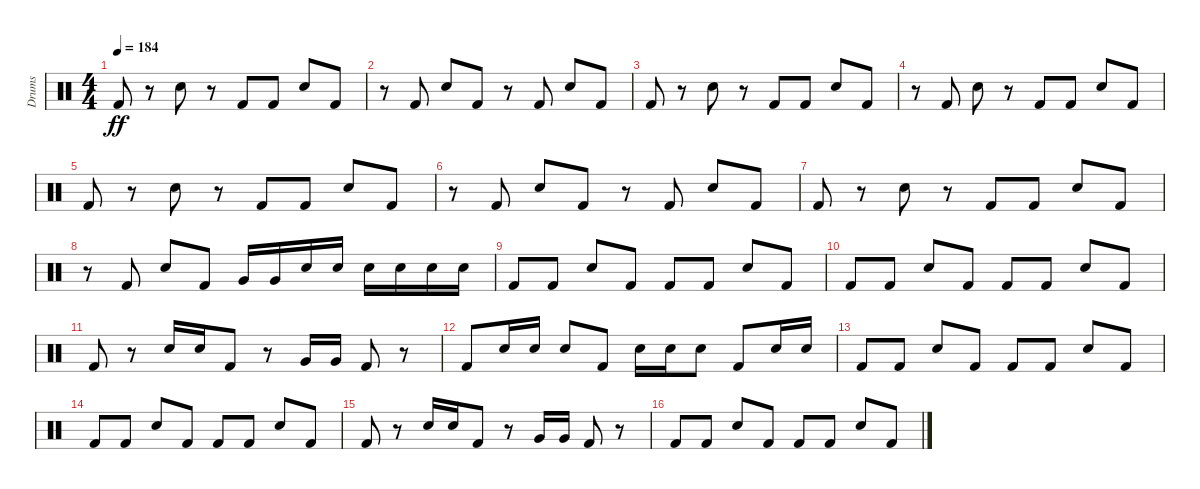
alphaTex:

\track ("Drums" "Drums") {instrument percussion}
\staff {score}
\articulation defaults
\ts (4 4)
\tempo 184
\clef neutral
\ks c "Kick (hit) 2".8{dy ff}
r.8 "Electric Snare (hit)".8 r.8 "Kick (hit) 2".8 "Kick (hit) 2".8 "Electric Snare (hit)".8 "Kick (hit) 2".8 |
r.8 "Kick (hit) 2".8 "Electric Snare (hit)".8 "Kick (hit) 2".8 r.8 "Kick (hit) 2".8 "Electric Snare (hit)".8 "Kick (hit) 2".8 |
"Kick (hit) 2".8 r.8 "Electric Snare (hit)".8 r.8 "Kick (hit) 2".8 "Kick (hit) 2".8 "Electric Snare (hit)".8 "Kick (hit) 2".8 |
r.8 "Kick (hit) 2".8 "Electric Snare (hit)".8 r.8 "Kick (hit) 2".8 "Kick (hit) 2".8 "Electric Snare (hit)".8 "Kick (hit) 2".8 |
"Kick (hit) 2".8 r.8 "Electric Snare (hit)".8 r.8 "Kick (hit) 2".8 "Kick (hit) 2".8 "Electric Snare (hit)".8 "Kick (hit) 2".8 |
r.8 "Kick (hit) 2".8 "Electric Snare (hit)".8 "Kick (hit) 2".8 r.8 "Kick (hit) 2".8 "Electric Snare (hit)".8 "Kick (hit) 2".8 |
"Kick (hit) 2".8 r.8 "Electric Snare (hit)".8 r.8 "Kick (hit) 2".8 "Kick (hit) 2".8 "Electric Snare (hit)".8 "Kick (hit) 2".8 |
r.8 "Kick (hit) 2".8 "Electric Snare (hit)".8 "Kick (hit) 2".8 "Very Low Tom (hit)".16 "Very Low Tom (hit)".16 "Electric Snare (hit)".16 "Electric Snare (hit)".16 "Electric Snare (hit)".16 "Electric Snare (hit)".16 "Electric Snare (hit)".16 "Electric Snare (hit)".16 |
"Kick (hit) 2".8 "Kick (hit) 2".8 "Electric Snare (hit)".8 "Kick (hit) 2".8 "Kick (hit) 2".8 "Kick (hit) 2".8 "Electric Snare (hit)".8 "Kick (hit) 2".8 |
"Kick (hit) 2".8 "Kick (hit) 2".8 "Electric Snare (hit)".8 "Kick (hit) 2".8 "Kick (hit) 2".8 "Kick (hit) 2".8 "Electric Snare (hit)".8 "Kick (hit) 2".8 |
"Kick (hit) 2".8 r.8 "Electric Snare (hit)".16 "Electric Snare (hit)".16 "Kick (hit) 2".8 r.8 "Very Low Tom (hit)".16 "Very Low Tom (hit)".16 "Kick (hit) 2".8 r.8 |
"Kick (hit) 2".8 "Electric Snare (hit)".16 "Electric Snare (hit)".16 "Electric Snare (hit)".8 "Kick (hit) 2".8 "Electric Snare (hit)".16 "Electric Snare (hit)".16 "Electric Snare (hit)".8 "Kick (hit) 2".8 "Electric Snare (hit)".16 "Electric Snare (hit)".16 |
"Kick (hit) 2".8 "Kick (hit) 2".8 "Electric Snare (hit)".8 "Kick (hit) 2".8 "Kick (hit) 2".8 "Kick (hit) 2".8 "Electric Snare (hit)".8 "Kick (hit) 2".8 |
"Kick (hit) 2".8 "Kick (hit) 2".8 "Electric Snare (hit)".8 "Kick (hit) 2".8 "Kick (hit) 2".8 "Kick (hit) 2".8 "Electric Snare (hit)".8 "Kick (hit) 2".8 |
"Kick (hit) 2".8 r.8 "Electric Snare (hit)".16 "Electric Snare (hit)".16 "Kick (hit) 2".8 r.8 "Very Low Tom (hit)".16 "Very Low Tom (hit)".16 "Kick (hit) 2".8 r.8 |
"Kick (hit) 2".8 "Kick (hit) 2".8 "Electric Snare (hit)".8 "Kick (hit) 2".8 "Kick (hit) 2".8 "Kick (hit) 2".8 "Electric Snare (hit)".8 "Kick (hit) 2".8
